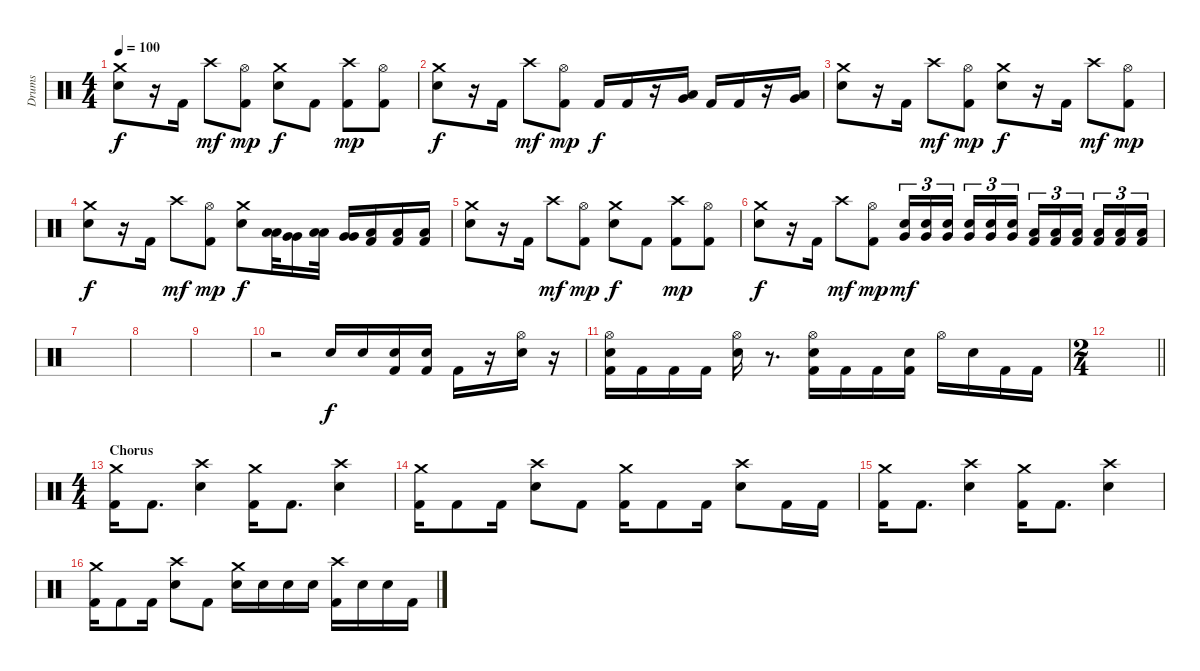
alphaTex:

\track ("Drums" "Drums") {instrument percussion}
\staff {score}
\articulation defaults
\ts (4 4)
\tempo 100
\clef neutral
\ks c
("Crash medium (hit)" "Electric Snare (hit)").8{dy f} r.16 "Kick (hit) 2".16 "Crash high (hit)".8{dy mf} ("Hi-Hat (open)" "Kick (hit) 2").8{dy mp} ("Crash medium (hit)" "Electric Snare (hit)").8{dy f} "Kick (hit) 2".8 ("Crash high (hit)" "Kick (hit) 2").8{dy mp} ("Hi-Hat (open)" "Kick (hit) 2").8 |
("Crash medium (hit)" "Electric Snare (hit)").8{dy f} r.16 "Kick (hit) 2".16 "Crash high (hit)".8{dy mf} ("Hi-Hat (open)" "Kick (hit) 2").8{dy mp} "Kick (hit) 2".16{dy f} "Kick (hit) 2".16 r.16 ("Very Low Tom (hit)" "Low Tom (hit)").16 "Kick (hit) 2".16 "Kick (hit) 2".16 r.16 ("Very Low Tom (hit)" "Low Tom (hit)").16 |
("Crash medium (hit)" "Electric Snare (hit)").8 r.16 "Kick (hit) 2".16 "Crash high (hit)".8{dy mf} ("Hi-Hat (open)" "Kick (hit) 2").8{dy mp} ("Crash medium (hit)" "Electric Snare (hit)").8{dy f} r.16 "Kick (hit) 2".16 "Crash high (hit)".8{dy mf} ("Hi-Hat (open)" "Kick (hit) 2").8{dy mp} |
("Crash medium (hit)" "Electric Snare (hit)").8{dy f} r.16 "Kick (hit) 2".16 "Crash high (hit)".8{dy mf} ("Hi-Hat (open)" "Kick (hit) 2").8{dy mp} ("Crash medium (hit)" "Electric Snare (hit)").8{dy f} ("Low Tom (hit)" "Low Tom (hit)").32 ("Very Low Tom (hit)" "Very Low Tom (hit)").16 ("Low Tom (hit)" "Low Tom (hit)").32 ("Very Low Tom (hit)" "Very Low Tom (hit)").16 ("Low Tom (hit)" "Kick (hit) 2").16 ("Low Tom (hit)" "Kick (hit) 2").16 ("Low Tom (hit)" "Kick (hit) 2").16 |
("Crash medium (hit)" "Electric Snare (hit)").8 r.16 "Kick (hit) 2".16 "Crash high (hit)".8{dy mf} ("Hi-Hat (open)" "Kick (hit) 2").8{dy mp} ("Crash medium (hit)" "Electric Snare (hit)").8{dy f} "Kick (hit) 2".8 ("Crash high (hit)" "Kick (hit) 2").8{dy mp} ("Hi-Hat (open)" "Kick (hit) 2").8 |
("Crash medium (hit)" "Electric Snare (hit)").8{dy f} r.16 "Kick (hit) 2".16 "Crash high (hit)".8{dy mf} ("Hi-Hat (open)" "Kick (hit) 2").8{dy mp} ("Very Low Tom (hit)" "Electric Snare (hit)").16{tu (3 2) dy mf} ("Very Low Tom (hit)" "Electric Snare (hit)").16{tu (3 2)} ("Very Low Tom (hit)" "Electric Snare (hit)").16{tu (3 2) beam splitsecondary} ("Very Low Tom (hit)" "Electric Snare (hit)").16{tu (3 2)} ("Very Low Tom (hit)" "Electric Snare (hit)").16{tu (3 2)} ("Very Low Tom (hit)" "Electric Snare (hit)").16{tu (3 2)} ("Low Floor Tom (hit)" "Kick (hit) 2").16{tu (3 2)} ("Low Floor Tom (hit)" "Kick (hit) 2").16{tu (3 2)} ("Low Floor Tom (hit)" "Kick (hit) 2").16{tu (3 2) beam splitsecondary} ("Low Floor Tom (hit)" "Kick (hit) 2").16{tu (3 2)} ("Low Floor Tom (hit)" "Kick (hit) 2").16{tu (3 2)} ("Low Floor Tom (hit)" "Kick (hit) 2").16{tu (3 2)} |
|
|
|
r.2 "Electric Snare (hit)".16{dy f} "Electric Snare (hit)".16 ("Electric Snare (hit)" "Kick (hit) 2").16 ("Electric Snare (hit)" "Kick (hit) 2").16 "Kick (hit) 2".16 r.16 ("Hi-Hat (open)" "Electric Snare (hit)").16 r.16 |
("Hi-Hat (open)" "Electric Snare (hit)" "Kick (hit) 2").16 "Kick (hit) 2".16 "Kick (hit) 2".16 "Kick (hit) 2".16 ("Hi-Hat (open)" "Electric Snare (hit)").16 r.8{d} ("Hi-Hat (open)" "Electric Snare (hit)" "Kick (hit) 2").16 "Kick (hit) 2".16 "Kick (hit) 2".16 ("Electric Snare (hit)" "Kick (hit) 2").16 "Hi-Hat (open)".16 "Electric Snare (hit)".16 "Kick (hit) 2".16 "Kick (hit) 2".16 |
\ts (2 4)
\barLineRight lightlight
|
\ts (4 4)
\section ("" "Chorus")
("Crash medium (hit)" "Kick (hit) 2").16 "Kick (hit) 2".8{d} ("Crash high (hit)" "Electric Snare (hit)").4 ("Crash medium (hit)" "Kick (hit) 2").16 "Kick (hit) 2".8{d} ("Crash high (hit)" "Electric Snare (hit)").4 |
("Crash medium (hit)" "Kick (hit) 2").16 "Kick (hit) 2".8 "Kick (hit) 2".16 ("Crash high (hit)" "Electric Snare (hit)").8 "Kick (hit) 2".8 ("Crash medium (hit)" "Kick (hit) 2").16 "Kick (hit) 2".8 "Kick (hit) 2".16 ("Crash high (hit)" "Electric Snare (hit)").8 "Kick (hit) 2".16 "Kick (hit) 2".16 |
("Crash medium (hit)" "Kick (hit) 2").16 "Kick (hit) 2".8{d} ("Crash high (hit)" "Electric Snare (hit)").4 ("Crash medium (hit)" "Kick (hit) 2").16 "Kick (hit) 2".8{d} ("Crash high (hit)" "Electric Snare (hit)").4 |
("Crash medium (hit)" "Kick (hit) 2").16 "Kick (hit) 2".8 "Kick (hit) 2".16 ("Crash high (hit)" "Electric Snare (hit)").8 "Kick (hit) 2".8 ("Crash medium (hit)" "Electric Snare (hit)").16 "Electric Snare (hit)".16 "Electric Snare (hit)".16 "Electric Snare (hit)".16 ("Crash high (hit)" "Kick (hit) 2").16 "Electric Snare (hit)".16 "Electric Snare (hit)".16 "Kick (hit) 2".16
